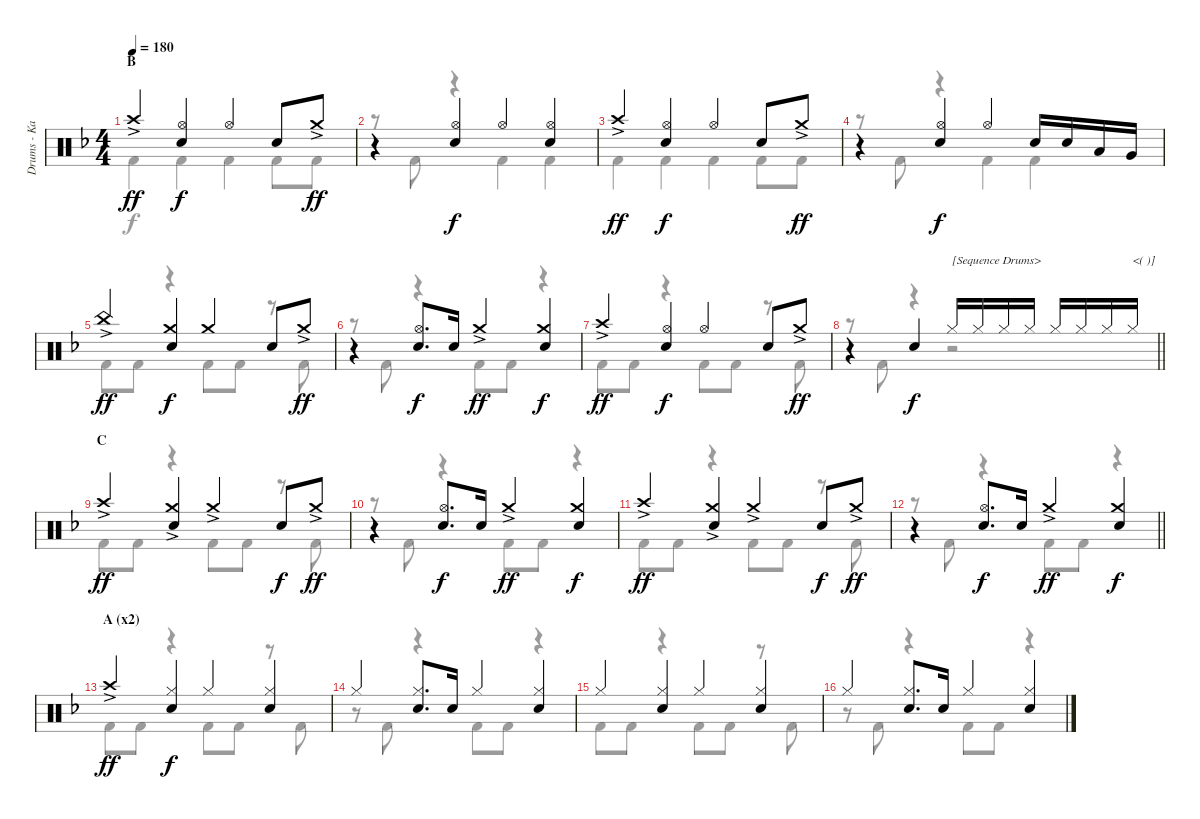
\track ("Drums - Kai" "Drums - Ka") {instrument percussion}
\staff {score}
\articulation defaults
\voice
\ts (4 4)
\section ("" "B")
\tempo 180
\clef neutral
\ks f "Crash high (hit)"{ac}.4{dy ff}
("Hi-Hat (open)" "Snare (hit) 2").4{dy f} "Hi-Hat (open)".4 "Snare (hit) 2".8 "Crash medium (hit)"{ac}.8{dy ff} |
r.4 ("Hi-Hat (open)" "Snare (hit) 2").4{dy f} "Hi-Hat (open)".4 ("Hi-Hat (open)" "Snare (hit) 2").4 |
"Crash high (hit)"{ac}.4{dy ff} ("Hi-Hat (open)" "Snare (hit) 2").4{dy f} "Hi-Hat (open)".4 "Snare (hit) 2".8 "Crash medium (hit)"{ac}.8{dy ff} |
r.4 ("Hi-Hat (open)" "Snare (hit) 2").4{dy f} "Hi-Hat (open)".4 "Snare (hit) 2".16 "Snare (hit) 2".16 "Low Tom (hit)".16 "Very Low Tom (hit)".16 |
"China (hit)"{ac}.4{dy ff} ("Crash medium (hit)" "Snare (hit) 2").4{dy f} "Crash medium (hit)".4 "Snare (hit) 2".8 "Crash medium (hit)"{ac}.8{dy ff} |
r.4 ("Hi-Hat (open)" "Snare (hit) 2").8{d dy f} "Snare (hit) 2".16 "Crash medium (hit)"{ac}.4{dy ff} ("Crash medium (hit)" "Snare (hit) 2").4{dy f} |
"Crash high (hit)"{ac}.4{dy ff} ("Hi-Hat (open)" "Snare (hit) 2").4{dy f} "Hi-Hat (open)".4 "Snare (hit) 2".8 "Crash medium (hit)"{ac}.8{dy ff} |
\barLineRight lightlight
r.4 "Snare (hit) 2".4{dy f} "Hi-Hat (closed)".16{txt "[Sequence Drums>"} "Hi-Hat (closed)".16 "Hi-Hat (closed)".16 "Hi-Hat (closed)".16 "Hi-Hat (closed)".16 "Hi-Hat (closed)".16 "Hi-Hat (closed)".16 "Hi-Hat (closed)".16{txt "<( )]"} |
\section ("" "C")
"Crash high (hit)"{ac}.4{dy ff} ("Crash medium (hit)"{ac} "Snare (hit) 2").4 "Crash medium (hit)"{ac}.4 "Snare (hit) 2".8{dy f} "Crash medium (hit)"{ac}.8{dy ff} |
r.4 ("Hi-Hat (open)" "Snare (hit) 2").8{d dy f} "Snare (hit) 2".16 "Crash medium (hit)"{ac}.4{dy ff} ("Crash medium (hit)" "Snare (hit) 2").4{dy f} |
"Crash high (hit)"{ac}.4{dy ff} ("Crash medium (hit)"{ac} "Snare (hit) 2").4 "Crash medium (hit)"{ac}.4 "Snare (hit) 2".8{dy f} "Crash medium (hit)"{ac}.8{dy ff} |
\barLineRight lightlight
r.4 ("Hi-Hat (open)" "Snare (hit) 2").8{d dy f} "Snare (hit) 2".16 "Crash medium (hit)"{ac}.4{dy ff} ("Crash medium (hit)" "Snare (hit) 2").4{dy f} |
\section ("" "A (x2)")
"Crash high (hit)"{ac}.4{dy ff} ("Hi-Hat (closed)" "Snare (hit) 2").4{dy f} "Hi-Hat (closed)".4 ("Hi-Hat (closed)" "Snare (hit) 2").4 |
"Hi-Hat (closed)".4 ("Hi-Hat (closed)" "Snare (hit) 2").8{d} "Snare (hit) 2".16 "Hi-Hat (closed)".4 ("Hi-Hat (closed)" "Snare (hit) 2").4 |
"Hi-Hat (closed)".4 ("Hi-Hat (closed)" "Snare (hit) 2").4 "Hi-Hat (closed)".4 ("Hi-Hat (closed)" "Snare (hit) 2").4 |
"Hi-Hat (closed)".4 ("Hi-Hat (closed)" "Snare (hit) 2").8{d} "Snare (hit) 2".16 "Hi-Hat (closed)".4 ("Hi-Hat (closed)" "Snare (hit) 2").4
\voice
\clef neutral
\ottava regular
\simile none
\ks f "Kick (hit) 2".4{dy f} "Kick (hit) 2".4 "Kick (hit) 2".4 "Kick (hit) 2".8 "Kick (hit) 2".8
|
r.8 "Kick (hit) 2".8 r.4 "Kick (hit) 2".4 "Kick (hit) 2".4 |
"Kick (hit) 2".4 "Kick (hit) 2".4 "Kick (hit) 2".4 "Kick (hit) 2".8 "Kick (hit) 2".8 |
r.8 "Kick (hit) 2".8 r.4 "Kick (hit) 2".4 "Kick (hit) 2".4 |
"Kick (hit) 2".8 "Kick (hit) 2".8 r.4 "Kick (hit) 2".8 "Kick (hit) 2".8 r.8 "Kick (hit) 2".8 |
r.8 "Kick (hit) 2".8 r.4 "Kick (hit) 2".8 "Kick (hit) 2".8 r.4 |
"Kick (hit) 2".8 "Kick (hit) 2".8 r.4 "Kick (hit) 2".8 "Kick (hit) 2".8 r.8 "Kick (hit) 2".8 |
\barLineRight lightlight
r.8 "Kick (hit) 2".8 r.4 r.2 |
"Kick (hit) 2".8 "Kick (hit) 2".8 r.4 "Kick (hit) 2".8 "Kick (hit) 2".8 r.8 "Kick (hit) 2".8 |
r.8 "Kick (hit) 2".8 r.4 "Kick (hit) 2".8 "Kick (hit) 2".8 r.4 |
"Kick (hit) 2".8 "Kick (hit) 2".8 r.4 "Kick (hit) 2".8 "Kick (hit) 2".8 r.8 "Kick (hit) 2".8 |
\barLineRight lightlight
r.8 "Kick (hit) 2".8 r.4 "Kick (hit) 2".8 "Kick (hit) 2".8 r.4 |
"Kick (hit) 2".8 "Kick (hit) 2".8 r.4 "Kick (hit) 2".8 "Kick (hit) 2".8 r.8 "Kick (hit) 2".8 |
r.8 "Kick (hit) 2".8 r.4 "Kick (hit) 2".8 "Kick (hit) 2".8 r.4 |
"Kick (hit) 2".8 "Kick (hit) 2".8 r.4 "Kick (hit) 2".8 "Kick (hit) 2".8 r.8 "Kick (hit) 2".8 |
r.8 "Kick (hit) 2".8 r.4 "Kick (hit) 2".8 "Kick (hit) 2".8 r.4
